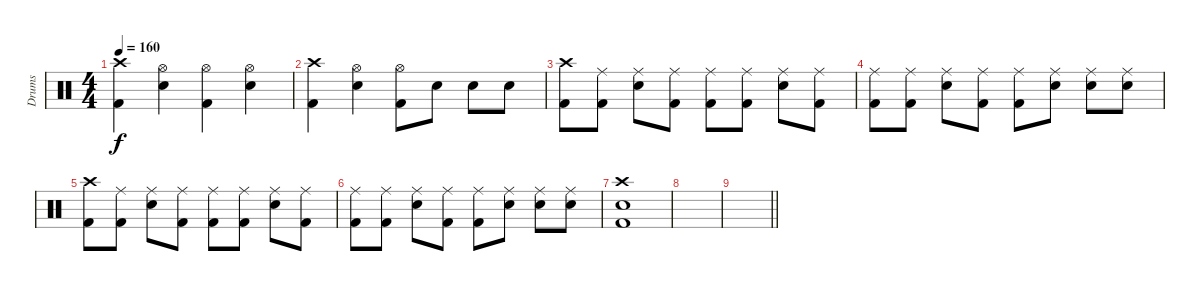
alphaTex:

\track ("Drums" "Drums") {instrument percussion}
\staff {score}
\articulation defaults
\ts (4 4)
\tempo 160
\clef neutral
\ks c
("Crash high (hit)" "Kick (hit) 2").4{dy f} ("Hi-Hat (open)" "Electric Snare (hit)").4 ("Hi-Hat (open)" "Kick (hit) 2").4 ("Hi-Hat (open)" "Electric Snare (hit)").4 |
("Crash high (hit)" "Kick (hit) 2").4 ("Hi-Hat (open)" "Electric Snare (hit)").4 ("Hi-Hat (open)" "Kick (hit) 2").8 "Electric Snare (hit)".8 "Electric Snare (hit)".8 "Electric Snare (hit)".8 |
("Crash high (hit)" "Kick (hit) 2").8 ("Ride (middle)" "Kick (hit) 2").8 ("Ride (middle)" "Electric Snare (hit)").8 ("Ride (middle)" "Kick (hit) 2").8 ("Ride (middle)" "Kick (hit) 2").8 ("Ride (middle)" "Kick (hit) 2").8 ("Ride (middle)" "Electric Snare (hit)").8 ("Ride (middle)" "Kick (hit) 2").8 |
("Ride (middle)" "Kick (hit) 2").8 ("Ride (middle)" "Kick (hit) 2").8 ("Ride (middle)" "Electric Snare (hit)").8 ("Ride (middle)" "Kick (hit) 2").8 ("Ride (middle)" "Kick (hit) 2").8 ("Ride (middle)" "Electric Snare (hit)").8 ("Ride (middle)" "Electric Snare (hit)").8 ("Ride (middle)" "Electric Snare (hit)").8 |
("Crash high (hit)" "Kick (hit) 2").8 ("Ride (middle)" "Kick (hit) 2").8 ("Ride (middle)" "Electric Snare (hit)").8 ("Ride (middle)" "Kick (hit) 2").8 ("Ride (middle)" "Kick (hit) 2").8 ("Ride (middle)" "Kick (hit) 2").8 ("Ride (middle)" "Electric Snare (hit)").8 ("Ride (middle)" "Kick (hit) 2").8 |
("Ride (middle)" "Kick (hit) 2").8 ("Ride (middle)" "Kick (hit) 2").8 ("Ride (middle)" "Electric Snare (hit)").8 ("Ride (middle)" "Kick (hit) 2").8 ("Ride (middle)" "Kick (hit) 2").8 ("Ride (middle)" "Electric Snare (hit)").8 ("Ride (middle)" "Electric Snare (hit)").8 ("Ride (middle)" "Electric Snare (hit)").8 |
("Crash high (hit)" "Electric Snare (hit)" "Kick (hit) 2").1 |
|
\barLineRight lightlight
